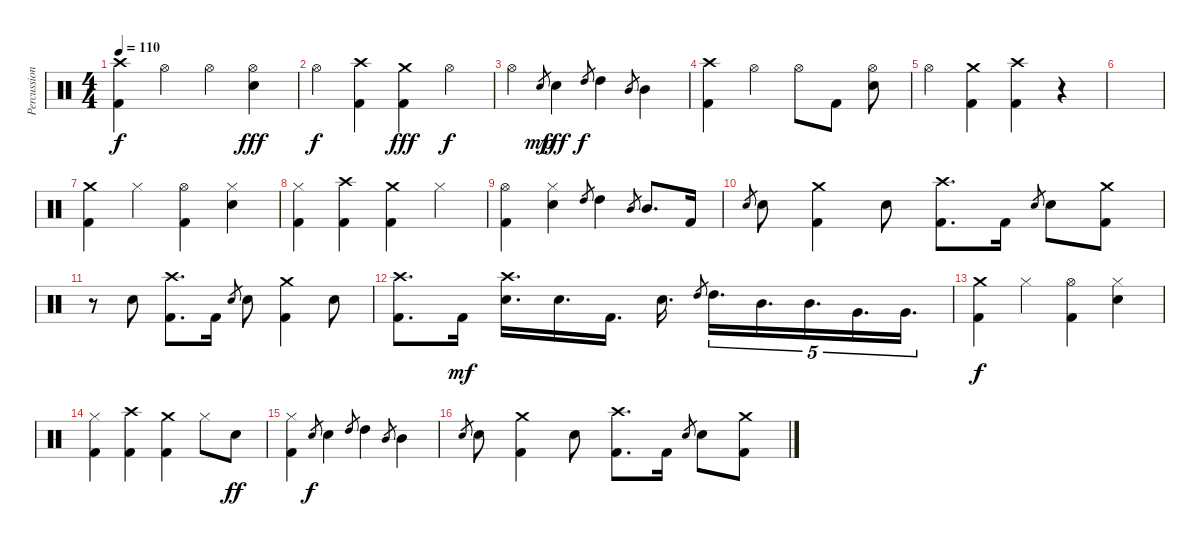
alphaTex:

\track ("Percussion" "Percussion") {instrument percussion}
\staff {score}
\articulation defaults
\ts (4 4)
\tempo 110
\clef neutral
\ks c
("Crash high (hit)" "Kick (hit) 2").4{dy f} "Hi-Hat (open)".4 "Hi-Hat (open)".4 ("Hi-Hat (open)" "Electric Snare (hit)").4{dy fff} |
"Hi-Hat (open)".4{dy f} ("Crash high (hit)" "Kick (hit) 2").4 ("Crash medium (hit)" "Kick (hit) 2").4{dy fff} "Hi-Hat (open)".4{dy f} |
"Hi-Hat (open)".4 "Electric Snare (hit)".8{gr dy mp} "Electric Snare (hit)".4{dy fff} "High Tom (hit)".8{gr dy f} "High Tom (hit)".4 "Mid Tom (hit)".8{gr} "Mid Tom (hit)".4 |
("Crash high (hit)" "Kick (hit) 2").4 "Hi-Hat (open)".4 "Hi-Hat (open)".8 "Kick (hit) 2".8 ("Hi-Hat (open)" "Electric Snare (hit)").8 |
"Hi-Hat (open)".4 ("Crash medium (hit)" "Kick (hit) 2").4 ("Crash high (hit)" "Kick (hit) 2").4 r.4 |
|
("Crash medium (hit)" "Kick (hit) 2").4 "Hi-Hat (closed)".4 ("Hi-Hat (open)" "Kick (hit) 2").4 ("Hi-Hat (closed)" "Electric Snare (hit)").4 |
("Hi-Hat (closed)" "Kick (hit) 2").4 ("Crash high (hit)" "Kick (hit) 2").4 ("Crash medium (hit)" "Kick (hit) 2").4 "Hi-Hat (closed)".4 |
("Hi-Hat (open)" "Kick (hit) 2").4 ("Hi-Hat (closed)" "Electric Snare (hit)").4 "High Tom (hit)".8{gr} "High Tom (hit)".4 "Mid Tom (hit)".8{gr} "Mid Tom (hit)".8{d} "Kick (hit) 2".16 |
"Electric Snare (hit)".8{gr} "Electric Snare (hit)".8 ("Crash medium (hit)" "Kick (hit) 2").4 "Electric Snare (hit)".8 ("Crash high (hit)" "Kick (hit) 2").8{d} "Kick (hit) 2".16 "Electric Snare (hit)".8{gr} "Electric Snare (hit)".8 ("Crash medium (hit)" "Kick (hit) 2").8 |
r.8 "Electric Snare (hit)".8 ("Crash high (hit)" "Kick (hit) 2").8{d} "Kick (hit) 2".16 "Electric Snare (hit)".8{gr} "Electric Snare (hit)".8 ("Crash medium (hit)" "Kick (hit) 2").4 "Electric Snare (hit)".8 |
("Crash high (hit)" "Kick (hit) 2").8{d} "Kick (hit) 2".16{dy mf} ("Crash high (hit)" "Electric Snare (hit)").16{d} "Electric Snare (hit)".16{d} "Kick (hit) 2".16{d} "Electric Snare (hit)".16{d} "High Tom (hit)".8{gr beam splitsecondary} "High Tom (hit)".16{d tu (5 4)} "Mid Tom (hit)".16{d tu (5 4)} "Mid Tom (hit)".16{d tu (5 4)} "Very Low Tom (hit)".16{d tu (5 4)} "Very Low Tom (hit)".16{d tu (5 4)} |
("Crash medium (hit)" "Kick (hit) 2").4{dy f} "Hi-Hat (closed)".4 ("Hi-Hat (open)" "Kick (hit) 2").4 ("Hi-Hat (closed)" "Electric Snare (hit)").4 |
("Hi-Hat (closed)" "Kick (hit) 2").4 ("Crash high (hit)" "Kick (hit) 2").4 ("Crash medium (hit)" "Kick (hit) 2").4 "Hi-Hat (closed)".8 "Electric Snare (hit)".8{dy ff} |
("Hi-Hat (closed)" "Kick (hit) 2").4 "Electric Snare (hit)".8{gr dy f} "Electric Snare (hit)".4 "High Tom (hit)".8{gr} "High Tom (hit)".4 "Mid Tom (hit)".8{gr} "Mid Tom (hit)".4 |
"Electric Snare (hit)".8{gr} "Electric Snare (hit)".8 ("Crash medium (hit)" "Kick (hit) 2").4 "Electric Snare (hit)".8 ("Crash high (hit)" "Kick (hit) 2").8{d} "Kick (hit) 2".16 "Electric Snare (hit)".8{gr} "Electric Snare (hit)".8 ("Crash medium (hit)" "Kick (hit) 2").8
